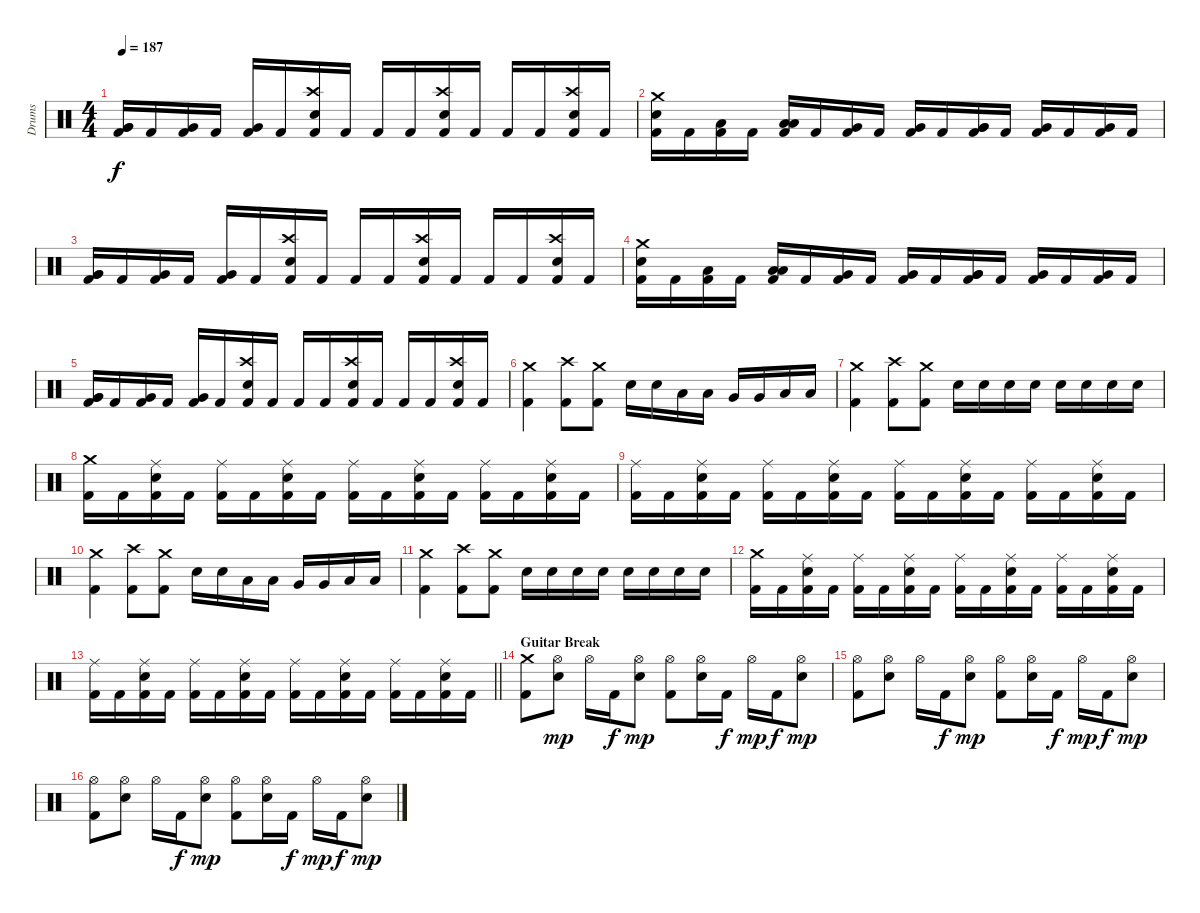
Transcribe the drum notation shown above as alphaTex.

\track ("Drums" "Drums") {instrument percussion}
\staff {score}
\articulation defaults
\ts (4 4)
\tempo 187
\clef neutral
\ks c
("Very Low Tom (hit)" "Very Low Tom (hit)" "Kick (hit) 2").16{dy f} "Kick (hit) 2".16 ("Very Low Tom (hit)" "Kick (hit) 2").16 "Kick (hit) 2".16 ("Very Low Tom (hit)" "Kick (hit) 2").16 "Kick (hit) 2".16 ("Crash high (hit)" "Snare (hit) 2" "Kick (hit) 2").16 "Kick (hit) 2".16 "Kick (hit) 2".16 "Kick (hit) 2".16 ("Crash high (hit)" "Snare (hit) 2" "Kick (hit) 2").16 "Kick (hit) 2".16 "Kick (hit) 2".16 "Kick (hit) 2".16 ("Crash high (hit)" "Snare (hit) 2" "Kick (hit) 2").16 "Kick (hit) 2".16 |
("Crash medium (hit)" "Snare (hit) 2" "Kick (hit) 2").16 "Kick (hit) 2".16 ("Low Floor Tom (hit)" "Kick (hit) 2").16 "Kick (hit) 2".16 ("Low Floor Tom (hit)" "Low Floor Tom (hit)" "Kick (hit) 2").16 "Kick (hit) 2".16 ("Very Low Tom (hit)" "Kick (hit) 2").16 "Kick (hit) 2".16 ("Very Low Tom (hit)" "Kick (hit) 2").16 "Kick (hit) 2".16 ("Very Low Tom (hit)" "Very Low Tom (hit)" "Kick (hit) 2").16 "Kick (hit) 2".16 ("Very Low Tom (hit)" "Kick (hit) 2").16 "Kick (hit) 2".16 ("Very Low Tom (hit)" "Kick (hit) 2").16 "Kick (hit) 2".16 |
("Very Low Tom (hit)" "Very Low Tom (hit)" "Kick (hit) 2").16 "Kick (hit) 2".16 ("Very Low Tom (hit)" "Kick (hit) 2").16 "Kick (hit) 2".16 ("Very Low Tom (hit)" "Kick (hit) 2").16 "Kick (hit) 2".16 ("Crash high (hit)" "Snare (hit) 2" "Kick (hit) 2").16 "Kick (hit) 2".16 "Kick (hit) 2".16 "Kick (hit) 2".16 ("Crash high (hit)" "Snare (hit) 2" "Kick (hit) 2").16 "Kick (hit) 2".16 "Kick (hit) 2".16 "Kick (hit) 2".16 ("Crash high (hit)" "Snare (hit) 2" "Kick (hit) 2").16 "Kick (hit) 2".16 |
("Crash medium (hit)" "Snare (hit) 2" "Kick (hit) 2").16 "Kick (hit) 2".16 ("Low Floor Tom (hit)" "Kick (hit) 2").16 "Kick (hit) 2".16 ("Low Floor Tom (hit)" "Low Floor Tom (hit)" "Kick (hit) 2").16 "Kick (hit) 2".16 ("Very Low Tom (hit)" "Kick (hit) 2").16 "Kick (hit) 2".16 ("Very Low Tom (hit)" "Kick (hit) 2").16 "Kick (hit) 2".16 ("Very Low Tom (hit)" "Very Low Tom (hit)" "Kick (hit) 2").16 "Kick (hit) 2".16 ("Very Low Tom (hit)" "Kick (hit) 2").16 "Kick (hit) 2".16 ("Very Low Tom (hit)" "Kick (hit) 2").16 "Kick (hit) 2".16 |
("Very Low Tom (hit)" "Very Low Tom (hit)" "Kick (hit) 2").16 "Kick (hit) 2".16 ("Very Low Tom (hit)" "Kick (hit) 2").16 "Kick (hit) 2".16 ("Very Low Tom (hit)" "Kick (hit) 2").16 "Kick (hit) 2".16 ("Crash high (hit)" "Snare (hit) 2" "Kick (hit) 2").16 "Kick (hit) 2".16 "Kick (hit) 2".16 "Kick (hit) 2".16 ("Crash high (hit)" "Snare (hit) 2" "Kick (hit) 2").16 "Kick (hit) 2".16 "Kick (hit) 2".16 "Kick (hit) 2".16 ("Crash high (hit)" "Snare (hit) 2" "Kick (hit) 2").16 "Kick (hit) 2".16 |
("Crash medium (hit)" "Kick (hit) 2").4 ("Crash high (hit)" "Kick (hit) 2").8 ("Crash medium (hit)" "Kick (hit) 2").8 "Snare (hit) 2".16 "Snare (hit) 2".16 "Low Tom (hit)".16 "Low Tom (hit)".16 "Very Low Tom (hit)".16 "Very Low Tom (hit)".16 "Low Floor Tom (hit)".16 "Low Floor Tom (hit)".16 |
("Crash medium (hit)" "Kick (hit) 2").4 ("Crash high (hit)" "Kick (hit) 2").8 ("Crash medium (hit)" "Kick (hit) 2").8 "Snare (hit) 2".16 "Snare (hit) 2".16 "Snare (hit) 2".16 "Snare (hit) 2".16 "Snare (hit) 2".16 "Snare (hit) 2".16 "Snare (hit) 2".16 "Snare (hit) 2".16 |
("Crash medium (hit)" "Kick (hit) 2").16 "Kick (hit) 2".16 ("Ride (middle)" "Snare (hit) 2" "Kick (hit) 2").16 "Kick (hit) 2".16 ("Ride (middle)" "Kick (hit) 2").16 "Kick (hit) 2".16 ("Ride (middle)" "Snare (hit) 2" "Kick (hit) 2").16 "Kick (hit) 2".16 ("Ride (middle)" "Kick (hit) 2").16 "Kick (hit) 2".16 ("Ride (middle)" "Snare (hit) 2" "Kick (hit) 2").16 "Kick (hit) 2".16 ("Ride (middle)" "Kick (hit) 2").16 "Kick (hit) 2".16 ("Ride (middle)" "Snare (hit) 2" "Kick (hit) 2").16 "Kick (hit) 2".16 |
("Ride (middle)" "Kick (hit) 2").16 "Kick (hit) 2".16 ("Ride (middle)" "Snare (hit) 2" "Kick (hit) 2").16 "Kick (hit) 2".16 ("Ride (middle)" "Kick (hit) 2").16 "Kick (hit) 2".16 ("Ride (middle)" "Snare (hit) 2" "Kick (hit) 2").16 "Kick (hit) 2".16 ("Ride (middle)" "Kick (hit) 2").16 "Kick (hit) 2".16 ("Ride (middle)" "Snare (hit) 2" "Kick (hit) 2").16 "Kick (hit) 2".16 ("Ride (middle)" "Kick (hit) 2").16 "Kick (hit) 2".16 ("Ride (middle)" "Snare (hit) 2" "Kick (hit) 2").16 "Kick (hit) 2".16 |
("Crash medium (hit)" "Kick (hit) 2").4 ("Crash high (hit)" "Kick (hit) 2").8 ("Crash medium (hit)" "Kick (hit) 2").8 "Snare (hit) 2".16 "Snare (hit) 2".16 "Low Tom (hit)".16 "Low Tom (hit)".16 "Very Low Tom (hit)".16 "Very Low Tom (hit)".16 "Low Floor Tom (hit)".16 "Low Floor Tom (hit)".16 |
("Crash medium (hit)" "Kick (hit) 2").4 ("Crash high (hit)" "Kick (hit) 2").8 ("Crash medium (hit)" "Kick (hit) 2").8 "Snare (hit) 2".16 "Snare (hit) 2".16 "Snare (hit) 2".16 "Snare (hit) 2".16 "Snare (hit) 2".16 "Snare (hit) 2".16 "Snare (hit) 2".16 "Snare (hit) 2".16 |
("Crash medium (hit)" "Kick (hit) 2").16 "Kick (hit) 2".16 ("Ride (middle)" "Snare (hit) 2" "Kick (hit) 2").16 "Kick (hit) 2".16 ("Ride (middle)" "Kick (hit) 2").16 "Kick (hit) 2".16 ("Ride (middle)" "Snare (hit) 2" "Kick (hit) 2").16 "Kick (hit) 2".16 ("Ride (middle)" "Kick (hit) 2").16 "Kick (hit) 2".16 ("Ride (middle)" "Snare (hit) 2" "Kick (hit) 2").16 "Kick (hit) 2".16 ("Ride (middle)" "Kick (hit) 2").16 "Kick (hit) 2".16 ("Ride (middle)" "Snare (hit) 2" "Kick (hit) 2").16 "Kick (hit) 2".16 |
\barLineRight lightlight
("Ride (middle)" "Kick (hit) 2").16 "Kick (hit) 2".16 ("Ride (middle)" "Snare (hit) 2" "Kick (hit) 2").16 "Kick (hit) 2".16 ("Ride (middle)" "Kick (hit) 2").16 "Kick (hit) 2".16 ("Ride (middle)" "Snare (hit) 2" "Kick (hit) 2").16 "Kick (hit) 2".16 ("Ride (middle)" "Kick (hit) 2").16 "Kick (hit) 2".16 ("Ride (middle)" "Snare (hit) 2" "Kick (hit) 2").16 "Kick (hit) 2".16 ("Ride (middle)" "Kick (hit) 2").16 "Kick (hit) 2".16 ("Ride (middle)" "Snare (hit) 2" "Kick (hit) 2").16 "Kick (hit) 2".16 |
\section ("" "Guitar Break")
("Crash medium (hit)" "Kick (hit) 2").8 ("Hi-Hat (open)" "Snare (hit) 2").8{dy mp} "Hi-Hat (open)".16 "Kick (hit) 2".16{dy f} ("Hi-Hat (open)" "Snare (hit) 2").8{dy mp} ("Hi-Hat (open)" "Kick (hit) 2").8 ("Hi-Hat (open)" "Snare (hit) 2").16 "Kick (hit) 2".16{dy f} "Hi-Hat (open)".16{dy mp} "Kick (hit) 2".16{dy f} ("Hi-Hat (open)" "Snare (hit) 2").8{dy mp} |
("Hi-Hat (open)" "Kick (hit) 2").8 ("Hi-Hat (open)" "Snare (hit) 2").8 "Hi-Hat (open)".16 "Kick (hit) 2".16{dy f} ("Hi-Hat (open)" "Snare (hit) 2").8{dy mp} ("Hi-Hat (open)" "Kick (hit) 2").8 ("Hi-Hat (open)" "Snare (hit) 2").16 "Kick (hit) 2".16{dy f} "Hi-Hat (open)".16{dy mp} "Kick (hit) 2".16{dy f} ("Hi-Hat (open)" "Snare (hit) 2").8{dy mp} |
("Hi-Hat (open)" "Kick (hit) 2").8 ("Hi-Hat (open)" "Snare (hit) 2").8 "Hi-Hat (open)".16 "Kick (hit) 2".16{dy f} ("Hi-Hat (open)" "Snare (hit) 2").8{dy mp} ("Hi-Hat (open)" "Kick (hit) 2").8 ("Hi-Hat (open)" "Snare (hit) 2").16 "Kick (hit) 2".16{dy f} "Hi-Hat (open)".16{dy mp} "Kick (hit) 2".16{dy f} ("Hi-Hat (open)" "Snare (hit) 2").8{dy mp}
